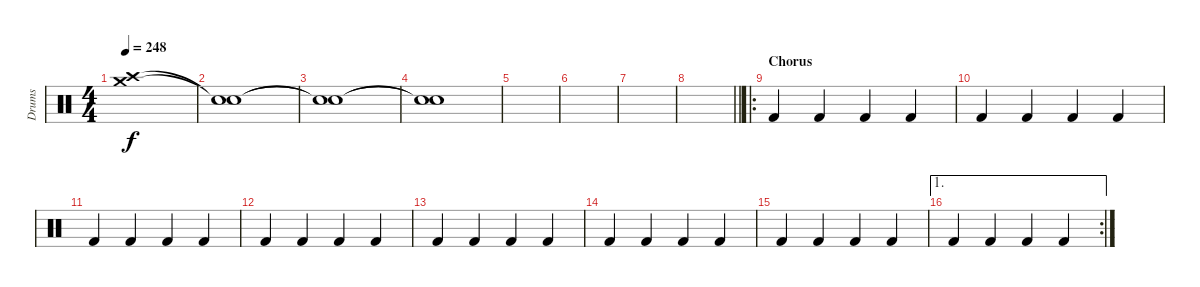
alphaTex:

\track ("Drums" "Drums") {instrument percussion}
\staff {score}
\articulation defaults
\ts (4 4)
\tempo 248
\clef neutral
\ks c
("Crash medium (hit)" "Crash high (hit)").1{dy f} |
("Snare (hit)"{t} "Snare (hit)"{t}).1 |
("Snare (hit)"{t} "Snare (hit)"{t}).1 |
("Snare (hit)"{t} "Snare (hit)"{t}).1 |
|
|
|
\barLineRight lightlight
|
\ro
\section ("" "Chorus")
"Kick (hit) 2".4 "Kick (hit) 2".4 "Kick (hit) 2".4 "Kick (hit) 2".4 |
"Kick (hit) 2".4 "Kick (hit) 2".4 "Kick (hit) 2".4 "Kick (hit) 2".4 |
"Kick (hit) 2".4 "Kick (hit) 2".4 "Kick (hit) 2".4 "Kick (hit) 2".4 |
"Kick (hit) 2".4 "Kick (hit) 2".4 "Kick (hit) 2".4 "Kick (hit) 2".4 |
"Kick (hit) 2".4 "Kick (hit) 2".4 "Kick (hit) 2".4 "Kick (hit) 2".4 |
"Kick (hit) 2".4 "Kick (hit) 2".4 "Kick (hit) 2".4 "Kick (hit) 2".4 |
"Kick (hit) 2".4 "Kick (hit) 2".4 "Kick (hit) 2".4 "Kick (hit) 2".4 |
\ae 1
\rc 2 "Kick (hit) 2".4 "Kick (hit) 2".4 "Kick (hit) 2".4 "Kick (hit) 2".4
